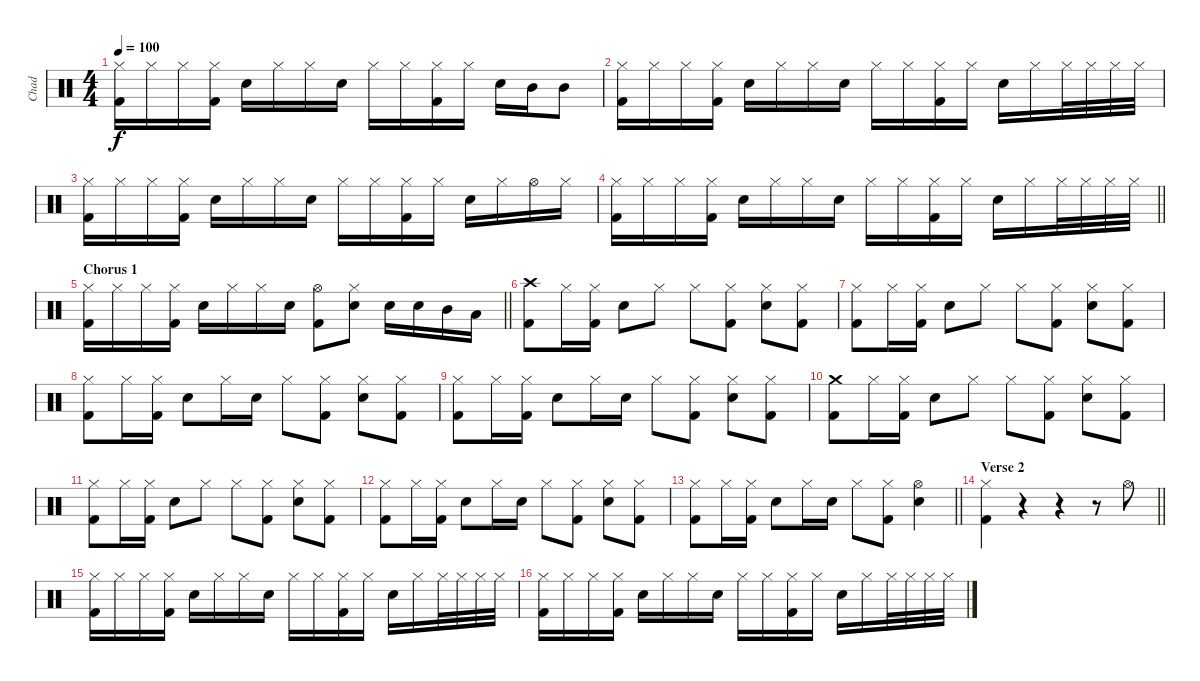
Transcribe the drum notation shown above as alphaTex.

\track ("Chad" "Chad") {instrument percussion}
\staff {score}
\articulation defaults
\ts (4 4)
\tempo 100
\clef neutral
\ks c
("Hi-Hat (closed)" "Kick (hit) 2").16{dy f} "Hi-Hat (closed)".16 "Hi-Hat (closed)".16 ("Hi-Hat (closed)" "Kick (hit) 2").16 "Electric Snare (hit)".16 "Hi-Hat (closed)".16 "Hi-Hat (closed)".16 "Electric Snare (hit)".16 "Hi-Hat (closed)".16 "Hi-Hat (closed)".16 ("Hi-Hat (closed)" "Kick (hit) 2").16 "Hi-Hat (closed)".16 "Electric Snare (hit)".16 "Mid Tom (hit)".16 "Mid Tom (hit)".8 |
("Hi-Hat (closed)" "Kick (hit) 2").16 "Hi-Hat (closed)".16 "Hi-Hat (closed)".16 ("Hi-Hat (closed)" "Kick (hit) 2").16 "Electric Snare (hit)".16 "Hi-Hat (closed)".16 "Hi-Hat (closed)".16 "Electric Snare (hit)".16 "Hi-Hat (closed)".16 "Hi-Hat (closed)".16 ("Hi-Hat (closed)" "Kick (hit) 2").16 "Hi-Hat (closed)".16 "Electric Snare (hit)".16 "Hi-Hat (closed)".16 "Hi-Hat (closed)".32 "Hi-Hat (closed)".32 "Hi-Hat (closed)".32 "Hi-Hat (closed)".32 |
("Hi-Hat (closed)" "Kick (hit) 2").16 "Hi-Hat (closed)".16 "Hi-Hat (closed)".16 ("Hi-Hat (closed)" "Kick (hit) 2").16 "Electric Snare (hit)".16 "Hi-Hat (closed)".16 "Hi-Hat (closed)".16 "Electric Snare (hit)".16 "Hi-Hat (closed)".16 "Hi-Hat (closed)".16 ("Hi-Hat (closed)" "Kick (hit) 2").16 "Hi-Hat (closed)".16 "Electric Snare (hit)".16 "Hi-Hat (closed)".16 "Hi-Hat (open)".16 "Hi-Hat (closed)".16 |
\barLineRight lightlight
("Hi-Hat (closed)" "Kick (hit) 2").16 "Hi-Hat (closed)".16 "Hi-Hat (closed)".16 ("Hi-Hat (closed)" "Kick (hit) 2").16 "Electric Snare (hit)".16 "Hi-Hat (closed)".16 "Hi-Hat (closed)".16 "Electric Snare (hit)".16 "Hi-Hat (closed)".16 "Hi-Hat (closed)".16 ("Hi-Hat (closed)" "Kick (hit) 2").16 "Hi-Hat (closed)".16 "Electric Snare (hit)".16 "Hi-Hat (closed)".16 "Hi-Hat (closed)".32 "Hi-Hat (closed)".32 "Hi-Hat (closed)".32 "Hi-Hat (closed)".32 |
\section ("" "Chorus 1")
\barLineRight lightlight
("Hi-Hat (closed)" "Kick (hit) 2").16 "Hi-Hat (closed)".16 "Hi-Hat (closed)".16 ("Hi-Hat (closed)" "Kick (hit) 2").16 "Electric Snare (hit)".16 "Hi-Hat (closed)".16 "Hi-Hat (closed)".16 "Electric Snare (hit)".16 ("Hi-Hat (open)" "Kick (hit) 2").8 ("Hi-Hat (closed)" "Electric Snare (hit)").8 "Electric Snare (hit)".16 "Electric Snare (hit)".16 "Mid Tom (hit)".16 "Low Tom (hit)".16 |
("Crash high (hit)" "Kick (hit) 2").8 "Hi-Hat (closed)".16 ("Hi-Hat (closed)" "Kick (hit) 2").16 "Electric Snare (hit)".8 "Hi-Hat (closed)".8 "Hi-Hat (closed)".8 ("Hi-Hat (closed)" "Kick (hit) 2").8 ("Hi-Hat (closed)" "Electric Snare (hit)").8 ("Hi-Hat (closed)" "Kick (hit) 2").8 |
("Hi-Hat (closed)" "Kick (hit) 2").8 "Hi-Hat (closed)".16 ("Hi-Hat (closed)" "Kick (hit) 2").16 "Electric Snare (hit)".8 "Hi-Hat (closed)".8 "Hi-Hat (closed)".8 ("Hi-Hat (closed)" "Kick (hit) 2").8 ("Hi-Hat (closed)" "Electric Snare (hit)").8 ("Hi-Hat (closed)" "Kick (hit) 2").8 |
("Hi-Hat (closed)" "Kick (hit) 2").8 "Hi-Hat (closed)".16 ("Hi-Hat (closed)" "Kick (hit) 2").16 "Electric Snare (hit)".8 "Hi-Hat (closed)".16 "Electric Snare (hit)".16 "Hi-Hat (closed)".8 ("Hi-Hat (closed)" "Kick (hit) 2").8 ("Hi-Hat (closed)" "Electric Snare (hit)").8 ("Hi-Hat (closed)" "Kick (hit) 2").8 |
("Hi-Hat (closed)" "Kick (hit) 2").8 "Hi-Hat (closed)".16 ("Hi-Hat (closed)" "Kick (hit) 2").16 "Electric Snare (hit)".8 "Hi-Hat (closed)".16 "Electric Snare (hit)".16 "Hi-Hat (closed)".8 ("Hi-Hat (closed)" "Kick (hit) 2").8 ("Hi-Hat (closed)" "Electric Snare (hit)").8 ("Hi-Hat (closed)" "Kick (hit) 2").8 |
("Crash medium (hit)" "Kick (hit) 2").8 "Hi-Hat (closed)".16 ("Hi-Hat (closed)" "Kick (hit) 2").16 "Electric Snare (hit)".8 "Hi-Hat (closed)".8 "Hi-Hat (closed)".8 ("Hi-Hat (closed)" "Kick (hit) 2").8 ("Hi-Hat (closed)" "Electric Snare (hit)").8 ("Hi-Hat (closed)" "Kick (hit) 2").8 |
("Hi-Hat (closed)" "Kick (hit) 2").8 "Hi-Hat (closed)".16 ("Hi-Hat (closed)" "Kick (hit) 2").16 "Electric Snare (hit)".8 "Hi-Hat (closed)".8 "Hi-Hat (closed)".8 ("Hi-Hat (closed)" "Kick (hit) 2").8 ("Hi-Hat (closed)" "Electric Snare (hit)").8 ("Hi-Hat (closed)" "Kick (hit) 2").8 |
("Hi-Hat (closed)" "Kick (hit) 2").8 "Hi-Hat (closed)".16 ("Hi-Hat (closed)" "Kick (hit) 2").16 "Electric Snare (hit)".8 "Hi-Hat (closed)".16 "Electric Snare (hit)".16 "Hi-Hat (closed)".8 ("Hi-Hat (closed)" "Kick (hit) 2").8 ("Hi-Hat (closed)" "Electric Snare (hit)").8 ("Hi-Hat (closed)" "Kick (hit) 2").8 |
\barLineRight lightlight
("Hi-Hat (closed)" "Kick (hit) 2").8 "Hi-Hat (closed)".16 ("Hi-Hat (closed)" "Kick (hit) 2").16 "Electric Snare (hit)".8 "Hi-Hat (closed)".16 "Electric Snare (hit)".16 "Hi-Hat (closed)".8 ("Hi-Hat (closed)" "Kick (hit) 2").8 ("Hi-Hat (open)" "Electric Snare (hit)").4 |
\section ("" "Verse 2")
\barLineRight lightlight
("Hi-Hat (closed)" "Kick (hit) 2").4 r.4 r.4 r.8 "Hi-Hat (open)".8 |
("Hi-Hat (closed)" "Kick (hit) 2").16 "Hi-Hat (closed)".16 "Hi-Hat (closed)".16 ("Hi-Hat (closed)" "Kick (hit) 2").16 "Electric Snare (hit)".16 "Hi-Hat (closed)".16 "Hi-Hat (closed)".16 "Electric Snare (hit)".16 "Hi-Hat (closed)".16 "Hi-Hat (closed)".16 ("Hi-Hat (closed)" "Kick (hit) 2").16 "Hi-Hat (closed)".16 "Electric Snare (hit)".16 "Hi-Hat (closed)".16 "Hi-Hat (closed)".32 "Hi-Hat (closed)".32 "Hi-Hat (closed)".32 "Hi-Hat (closed)".32 |
("Hi-Hat (closed)" "Kick (hit) 2").16 "Hi-Hat (closed)".16 "Hi-Hat (closed)".16 ("Hi-Hat (closed)" "Kick (hit) 2").16 "Electric Snare (hit)".16 "Hi-Hat (closed)".16 "Hi-Hat (closed)".16 "Electric Snare (hit)".16 "Hi-Hat (closed)".16 "Hi-Hat (closed)".16 ("Hi-Hat (closed)" "Kick (hit) 2").16 "Hi-Hat (closed)".16 "Electric Snare (hit)".16 "Hi-Hat (closed)".16 "Hi-Hat (closed)".32 "Hi-Hat (closed)".32 "Hi-Hat (closed)".32 "Hi-Hat (closed)".32
